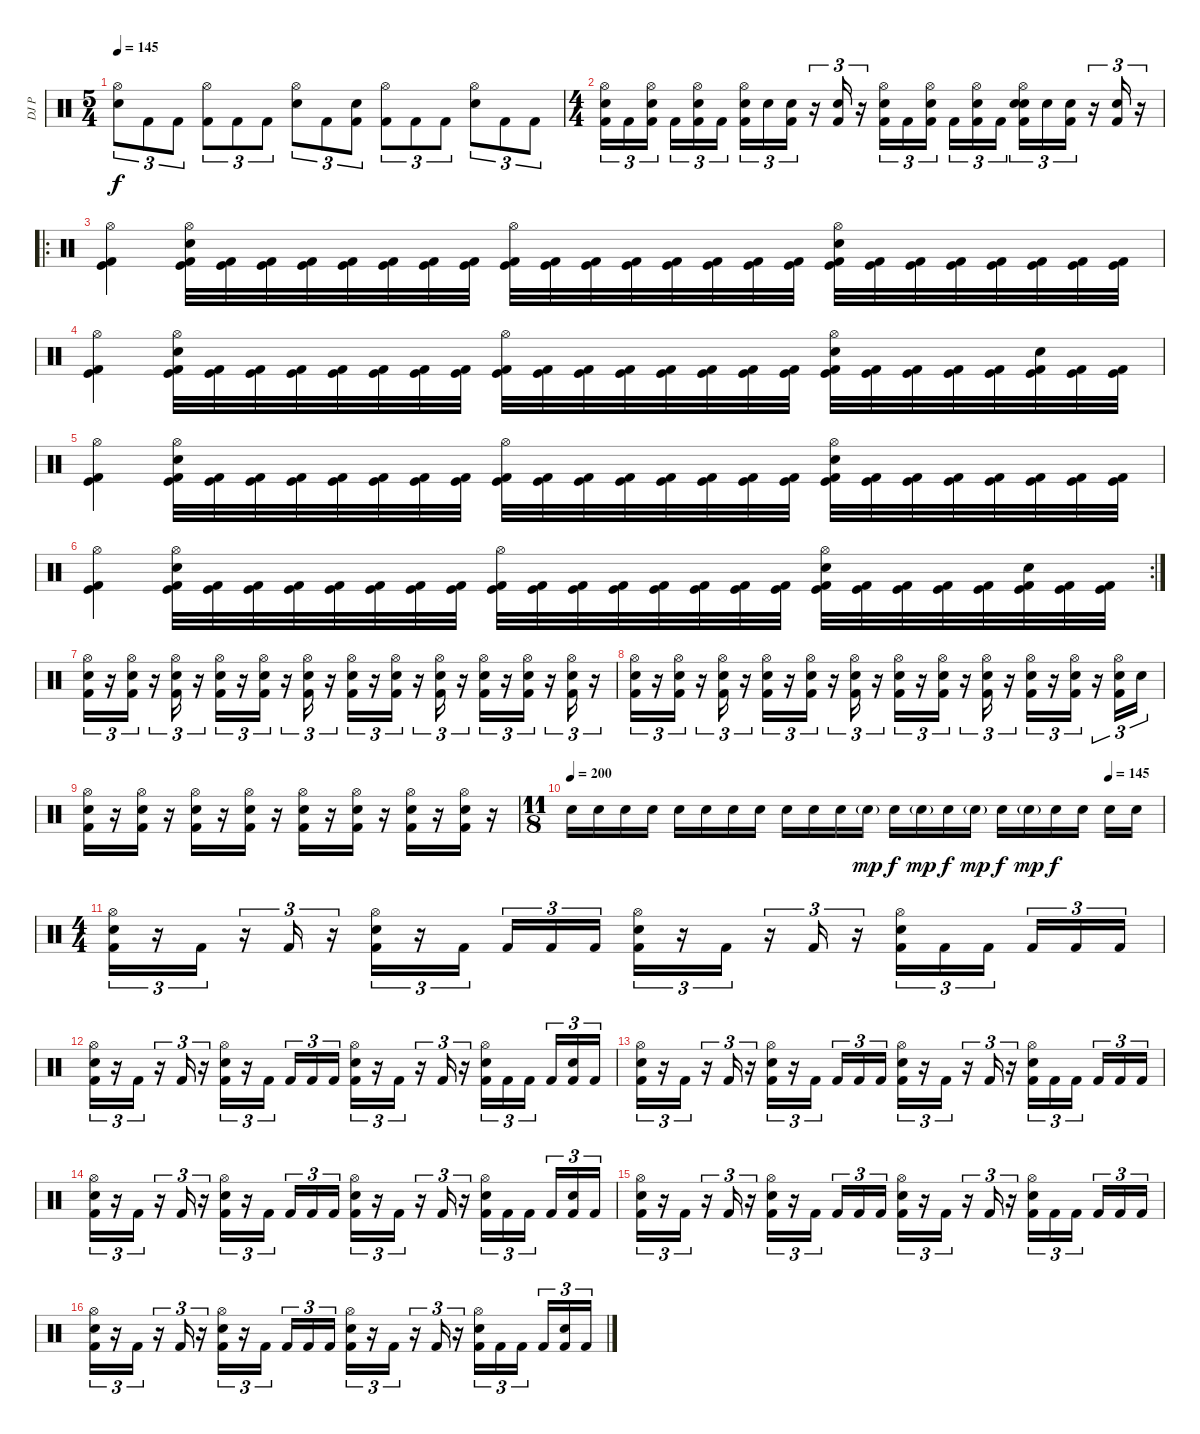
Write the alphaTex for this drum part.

\track ("DJ P" "DJ P") {instrument percussion}
\staff {score}
\articulation defaults
\ts (5 4)
\tempo 145
\clef neutral
\ks c
("Hi-Hat (open)" "Electric Snare (hit)").8{tu (3 2) dy f} "Kick (hit) 2".8{tu (3 2)} "Kick (hit) 2".8{tu (3 2)} ("Hi-Hat (open)" "Kick (hit) 2").8{tu (3 2)} "Kick (hit) 2".8{tu (3 2)} "Kick (hit) 2".8{tu (3 2)} ("Hi-Hat (open)" "Electric Snare (hit)").8{tu (3 2)} "Kick (hit) 2".8{tu (3 2)} ("Electric Snare (hit)" "Kick (hit) 2").8{tu (3 2)} ("Hi-Hat (open)" "Kick (hit) 2").8{tu (3 2)} "Kick (hit) 2".8{tu (3 2)} "Kick (hit) 2".8{tu (3 2)} ("Hi-Hat (open)" "Electric Snare (hit)").8{tu (3 2)} "Kick (hit) 2".8{tu (3 2)} "Kick (hit) 2".8{tu (3 2)} |
\ts (4 4)
("Hi-Hat (open)" "Electric Snare (hit)" "Kick (hit) 2").16{tu (3 2)} "Kick (hit) 2".16{tu (3 2)} ("Hi-Hat (open)" "Electric Snare (hit)" "Kick (hit) 2").16{tu (3 2) beam splitsecondary} "Kick (hit) 2".16{tu (3 2)} ("Hi-Hat (open)" "Electric Snare (hit)" "Kick (hit) 2").16{tu (3 2)} "Kick (hit) 2".16{tu (3 2)} ("Hi-Hat (open)" "Electric Snare (hit)" "Kick (hit) 2").16{tu (3 2)} "Electric Snare (hit)".16{tu (3 2)} ("Electric Snare (hit)" "Kick (hit) 2").16{tu (3 2)} r.16{tu (3 2)} ("Electric Snare (hit)" "Kick (hit) 2").16{tu (3 2)} r.16{tu (3 2)} ("Hi-Hat (open)" "Electric Snare (hit)" "Kick (hit) 2").16{tu (3 2)} "Kick (hit) 2".16{tu (3 2)} ("Hi-Hat (open)" "Electric Snare (hit)" "Kick (hit) 2").16{tu (3 2) beam splitsecondary} "Kick (hit) 2".16{tu (3 2)} ("Hi-Hat (open)" "Electric Snare (hit)" "Kick (hit) 2").16{tu (3 2)} "Kick (hit) 2".16{tu (3 2)} ("Hi-Hat (open)" "Electric Snare (hit)" "Electric Snare (hit)" "Kick (hit) 2").16{tu (3 2)} "Electric Snare (hit)".16{tu (3 2)} ("Electric Snare (hit)" "Kick (hit) 2").16{tu (3 2)} r.16{tu (3 2)} ("Electric Snare (hit)" "Kick (hit) 2").16{tu (3 2)} r.16{tu (3 2)} |
\ro
("Hi-Hat (open)" "Kick (hit)" "Kick (hit) 2").4 ("Hi-Hat (open)" "Electric Snare (hit)" "Kick (hit)" "Kick (hit) 2").32 ("Kick (hit)" "Kick (hit) 2").32 ("Kick (hit)" "Kick (hit) 2").32 ("Kick (hit)" "Kick (hit) 2").32 ("Kick (hit)" "Kick (hit) 2").32 ("Kick (hit)" "Kick (hit) 2").32 ("Kick (hit)" "Kick (hit) 2").32 ("Kick (hit)" "Kick (hit) 2").32 ("Hi-Hat (open)" "Kick (hit)" "Kick (hit) 2").32 ("Kick (hit)" "Kick (hit) 2").32 ("Kick (hit)" "Kick (hit) 2").32 ("Kick (hit)" "Kick (hit) 2").32 ("Kick (hit)" "Kick (hit) 2").32 ("Kick (hit)" "Kick (hit) 2").32 ("Kick (hit)" "Kick (hit) 2").32 ("Kick (hit)" "Kick (hit) 2").32 ("Hi-Hat (open)" "Electric Snare (hit)" "Kick (hit)" "Kick (hit) 2").32 ("Kick (hit)" "Kick (hit) 2").32 ("Kick (hit)" "Kick (hit) 2").32 ("Kick (hit)" "Kick (hit) 2").32 ("Kick (hit)" "Kick (hit) 2").32 ("Kick (hit)" "Kick (hit) 2").32 ("Kick (hit)" "Kick (hit) 2").32 ("Kick (hit)" "Kick (hit) 2").32 |
("Hi-Hat (open)" "Kick (hit)" "Kick (hit) 2").4 ("Hi-Hat (open)" "Electric Snare (hit)" "Kick (hit)" "Kick (hit) 2").32 ("Kick (hit)" "Kick (hit) 2").32 ("Kick (hit)" "Kick (hit) 2").32 ("Kick (hit)" "Kick (hit) 2").32 ("Kick (hit)" "Kick (hit) 2").32 ("Kick (hit)" "Kick (hit) 2").32 ("Kick (hit)" "Kick (hit) 2").32 ("Kick (hit)" "Kick (hit) 2").32 ("Hi-Hat (open)" "Kick (hit)" "Kick (hit) 2").32 ("Kick (hit)" "Kick (hit) 2").32 ("Kick (hit)" "Kick (hit) 2").32 ("Kick (hit)" "Kick (hit) 2").32 ("Kick (hit)" "Kick (hit) 2").32 ("Kick (hit)" "Kick (hit) 2").32 ("Kick (hit)" "Kick (hit) 2").32 ("Kick (hit)" "Kick (hit) 2").32 ("Hi-Hat (open)" "Electric Snare (hit)" "Kick (hit)" "Kick (hit) 2").32 ("Kick (hit)" "Kick (hit) 2").32 ("Kick (hit)" "Kick (hit) 2").32 ("Kick (hit)" "Kick (hit) 2").32 ("Kick (hit)" "Kick (hit) 2").32 ("Electric Snare (hit)" "Kick (hit)" "Kick (hit) 2").32 ("Kick (hit)" "Kick (hit) 2").32 ("Kick (hit)" "Kick (hit) 2").32 |
("Hi-Hat (open)" "Kick (hit)" "Kick (hit) 2").4 ("Hi-Hat (open)" "Electric Snare (hit)" "Kick (hit)" "Kick (hit) 2").32 ("Kick (hit)" "Kick (hit) 2").32 ("Kick (hit)" "Kick (hit) 2").32 ("Kick (hit)" "Kick (hit) 2").32 ("Kick (hit)" "Kick (hit) 2").32 ("Kick (hit)" "Kick (hit) 2").32 ("Kick (hit)" "Kick (hit) 2").32 ("Kick (hit)" "Kick (hit) 2").32 ("Hi-Hat (open)" "Kick (hit)" "Kick (hit) 2").32 ("Kick (hit)" "Kick (hit) 2").32 ("Kick (hit)" "Kick (hit) 2").32 ("Kick (hit)" "Kick (hit) 2").32 ("Kick (hit)" "Kick (hit) 2").32 ("Kick (hit)" "Kick (hit) 2").32 ("Kick (hit)" "Kick (hit) 2").32 ("Kick (hit)" "Kick (hit) 2").32 ("Hi-Hat (open)" "Electric Snare (hit)" "Kick (hit)" "Kick (hit) 2").32 ("Kick (hit)" "Kick (hit) 2").32 ("Kick (hit)" "Kick (hit) 2").32 ("Kick (hit)" "Kick (hit) 2").32 ("Kick (hit)" "Kick (hit) 2").32 ("Kick (hit)" "Kick (hit) 2").32 ("Kick (hit)" "Kick (hit) 2").32 ("Kick (hit)" "Kick (hit) 2").32 |
\rc 2
("Hi-Hat (open)" "Kick (hit)" "Kick (hit) 2").4 ("Hi-Hat (open)" "Electric Snare (hit)" "Kick (hit)" "Kick (hit) 2").32 ("Kick (hit)" "Kick (hit) 2").32 ("Kick (hit)" "Kick (hit) 2").32 ("Kick (hit)" "Kick (hit) 2").32 ("Kick (hit)" "Kick (hit) 2").32 ("Kick (hit)" "Kick (hit) 2").32 ("Kick (hit)" "Kick (hit) 2").32 ("Kick (hit)" "Kick (hit) 2").32 ("Hi-Hat (open)" "Kick (hit)" "Kick (hit) 2").32 ("Kick (hit)" "Kick (hit) 2").32 ("Kick (hit)" "Kick (hit) 2").32 ("Kick (hit)" "Kick (hit) 2").32 ("Kick (hit)" "Kick (hit) 2").32 ("Kick (hit)" "Kick (hit) 2").32 ("Kick (hit)" "Kick (hit) 2").32 ("Kick (hit)" "Kick (hit) 2").32 ("Hi-Hat (open)" "Electric Snare (hit)" "Kick (hit)" "Kick (hit) 2").32 ("Kick (hit)" "Kick (hit) 2").32 ("Kick (hit)" "Kick (hit) 2").32 ("Kick (hit)" "Kick (hit) 2").32 ("Kick (hit)" "Kick (hit) 2").32 ("Electric Snare (hit)" "Kick (hit)" "Kick (hit) 2").32 ("Kick (hit)" "Kick (hit) 2").32 ("Kick (hit)" "Kick (hit) 2").32 |
("Hi-Hat (open)" "Electric Snare (hit)" "Kick (hit) 2").16{tu (3 2)} r.16{tu (3 2)} ("Hi-Hat (open)" "Electric Snare (hit)" "Kick (hit) 2").16{tu (3 2)} r.16{tu (3 2)} ("Hi-Hat (open)" "Electric Snare (hit)" "Kick (hit) 2").16{tu (3 2)} r.16{tu (3 2)} ("Hi-Hat (open)" "Electric Snare (hit)" "Kick (hit) 2").16{tu (3 2)} r.16{tu (3 2)} ("Hi-Hat (open)" "Electric Snare (hit)" "Kick (hit) 2").16{tu (3 2)} r.16{tu (3 2)} ("Hi-Hat (open)" "Electric Snare (hit)" "Kick (hit) 2").16{tu (3 2)} r.16{tu (3 2)} ("Hi-Hat (open)" "Electric Snare (hit)" "Kick (hit) 2").16{tu (3 2)} r.16{tu (3 2)} ("Hi-Hat (open)" "Electric Snare (hit)" "Kick (hit) 2").16{tu (3 2)} r.16{tu (3 2)} ("Hi-Hat (open)" "Electric Snare (hit)" "Kick (hit) 2").16{tu (3 2)} r.16{tu (3 2)} ("Hi-Hat (open)" "Electric Snare (hit)" "Kick (hit) 2").16{tu (3 2)} r.16{tu (3 2)} ("Hi-Hat (open)" "Electric Snare (hit)" "Kick (hit) 2").16{tu (3 2)} r.16{tu (3 2)} ("Hi-Hat (open)" "Electric Snare (hit)" "Kick (hit) 2").16{tu (3 2)} r.16{tu (3 2)} |
("Hi-Hat (open)" "Electric Snare (hit)" "Kick (hit) 2").16{tu (3 2)} r.16{tu (3 2)} ("Hi-Hat (open)" "Electric Snare (hit)" "Kick (hit) 2").16{tu (3 2)} r.16{tu (3 2)} ("Hi-Hat (open)" "Electric Snare (hit)" "Kick (hit) 2").16{tu (3 2)} r.16{tu (3 2)} ("Hi-Hat (open)" "Electric Snare (hit)" "Kick (hit) 2").16{tu (3 2)} r.16{tu (3 2)} ("Hi-Hat (open)" "Electric Snare (hit)" "Kick (hit) 2").16{tu (3 2)} r.16{tu (3 2)} ("Hi-Hat (open)" "Electric Snare (hit)" "Kick (hit) 2").16{tu (3 2)} r.16{tu (3 2)} ("Hi-Hat (open)" "Electric Snare (hit)" "Kick (hit) 2").16{tu (3 2)} r.16{tu (3 2)} ("Hi-Hat (open)" "Electric Snare (hit)" "Kick (hit) 2").16{tu (3 2)} r.16{tu (3 2)} ("Hi-Hat (open)" "Electric Snare (hit)" "Kick (hit) 2").16{tu (3 2)} r.16{tu (3 2)} ("Hi-Hat (open)" "Electric Snare (hit)" "Kick (hit) 2").16{tu (3 2)} r.16{tu (3 2)} ("Hi-Hat (open)" "Electric Snare (hit)" "Kick (hit) 2").16{tu (3 2)} r.16{tu (3 2)} ("Hi-Hat (open)" "Electric Snare (hit)" "Kick (hit) 2").16{tu (3 2)} "Electric Snare (hit)".16{tu (3 2)} |
("Hi-Hat (open)" "Electric Snare (hit)" "Kick (hit) 2").16 r.16 ("Hi-Hat (open)" "Electric Snare (hit)" "Kick (hit) 2").16 r.16 ("Hi-Hat (open)" "Electric Snare (hit)" "Kick (hit) 2").16 r.16 ("Hi-Hat (open)" "Electric Snare (hit)" "Kick (hit) 2").16 r.16 ("Hi-Hat (open)" "Electric Snare (hit)" "Kick (hit) 2").16 r.16 ("Hi-Hat (open)" "Electric Snare (hit)" "Kick (hit) 2").16 r.16 ("Hi-Hat (open)" "Electric Snare (hit)" "Kick (hit) 2").16 r.16 ("Hi-Hat (open)" "Electric Snare (hit)" "Kick (hit) 2").16 r.16 |
\ts (11 8)
\tempo 200
\tempo (145 0.9090909090909091)
"Electric Snare (hit)".16{volume 4} "Electric Snare (hit)".16 "Electric Snare (hit)".16 "Electric Snare (hit)".16{volume 16} "Electric Snare (hit)".16 "Electric Snare (hit)".16 "Electric Snare (hit)".16 "Electric Snare (hit)".16 "Electric Snare (hit)".16 "Electric Snare (hit)".16 "Electric Snare (hit)".16 "Electric Snare (hit)"{g}.16{dy mp} "Electric Snare (hit)".16{dy f} "Electric Snare (hit)"{g}.16{dy mp} "Electric Snare (hit)".16{dy f} "Electric Snare (hit)"{g}.16{dy mp} "Electric Snare (hit)".16{dy f} "Electric Snare (hit)"{g}.16{dy mp} "Electric Snare (hit)".16{dy f} "Electric Snare (hit)".16 "Electric Snare (hit)".16 "Electric Snare (hit)".16 |
\ts (4 4)
("Hi-Hat (open)" "Electric Snare (hit)" "Kick (hit) 2").16{tu (3 2)} r.16{tu (3 2)} "Kick (hit) 2".16{tu (3 2)} r.16{tu (3 2)} "Kick (hit) 2".16{tu (3 2)} r.16{tu (3 2)} ("Hi-Hat (open)" "Electric Snare (hit)" "Kick (hit) 2").16{tu (3 2)} r.16{tu (3 2)} "Kick (hit) 2".16{tu (3 2) beam splitsecondary} "Kick (hit) 2".16{tu (3 2)} "Kick (hit) 2".16{tu (3 2)} "Kick (hit) 2".16{tu (3 2)} ("Hi-Hat (open)" "Electric Snare (hit)" "Kick (hit) 2").16{tu (3 2)} r.16{tu (3 2)} "Kick (hit) 2".16{tu (3 2)} r.16{tu (3 2)} "Kick (hit) 2".16{tu (3 2)} r.16{tu (3 2)} ("Hi-Hat (open)" "Electric Snare (hit)" "Kick (hit) 2").16{tu (3 2)} "Kick (hit) 2".16{tu (3 2)} "Kick (hit) 2".16{tu (3 2) beam splitsecondary} "Kick (hit) 2".16{tu (3 2)} "Kick (hit) 2".16{tu (3 2)} "Kick (hit) 2".16{tu (3 2)} |
("Hi-Hat (open)" "Electric Snare (hit)" "Kick (hit) 2").16{tu (3 2)} r.16{tu (3 2)} "Kick (hit) 2".16{tu (3 2)} r.16{tu (3 2)} "Kick (hit) 2".16{tu (3 2)} r.16{tu (3 2)} ("Hi-Hat (open)" "Electric Snare (hit)" "Kick (hit) 2").16{tu (3 2)} r.16{tu (3 2)} "Kick (hit) 2".16{tu (3 2) beam splitsecondary} "Kick (hit) 2".16{tu (3 2)} "Kick (hit) 2".16{tu (3 2)} "Kick (hit) 2".16{tu (3 2)} ("Hi-Hat (open)" "Electric Snare (hit)" "Kick (hit) 2").16{tu (3 2)} r.16{tu (3 2)} "Kick (hit) 2".16{tu (3 2)} r.16{tu (3 2)} "Kick (hit) 2".16{tu (3 2)} r.16{tu (3 2)} ("Hi-Hat (open)" "Electric Snare (hit)" "Kick (hit) 2").16{tu (3 2)} "Kick (hit) 2".16{tu (3 2)} "Kick (hit) 2".16{tu (3 2) beam splitsecondary} "Kick (hit) 2".16{tu (3 2)} ("Electric Snare (hit)" "Kick (hit) 2").16{tu (3 2)} "Kick (hit) 2".16{tu (3 2)} |
("Hi-Hat (open)" "Electric Snare (hit)" "Kick (hit) 2").16{tu (3 2)} r.16{tu (3 2)} "Kick (hit) 2".16{tu (3 2)} r.16{tu (3 2)} "Kick (hit) 2".16{tu (3 2)} r.16{tu (3 2)} ("Hi-Hat (open)" "Electric Snare (hit)" "Kick (hit) 2").16{tu (3 2)} r.16{tu (3 2)} "Kick (hit) 2".16{tu (3 2) beam splitsecondary} "Kick (hit) 2".16{tu (3 2)} "Kick (hit) 2".16{tu (3 2)} "Kick (hit) 2".16{tu (3 2)} ("Hi-Hat (open)" "Electric Snare (hit)" "Kick (hit) 2").16{tu (3 2)} r.16{tu (3 2)} "Kick (hit) 2".16{tu (3 2)} r.16{tu (3 2)} "Kick (hit) 2".16{tu (3 2)} r.16{tu (3 2)} ("Hi-Hat (open)" "Electric Snare (hit)" "Kick (hit) 2").16{tu (3 2)} "Kick (hit) 2".16{tu (3 2)} "Kick (hit) 2".16{tu (3 2) beam splitsecondary} "Kick (hit) 2".16{tu (3 2)} "Kick (hit) 2".16{tu (3 2)} "Kick (hit) 2".16{tu (3 2)} |
("Hi-Hat (open)" "Electric Snare (hit)" "Kick (hit) 2").16{tu (3 2)} r.16{tu (3 2)} "Kick (hit) 2".16{tu (3 2)} r.16{tu (3 2)} "Kick (hit) 2".16{tu (3 2)} r.16{tu (3 2)} ("Hi-Hat (open)" "Electric Snare (hit)" "Kick (hit) 2").16{tu (3 2)} r.16{tu (3 2)} "Kick (hit) 2".16{tu (3 2) beam splitsecondary} "Kick (hit) 2".16{tu (3 2)} "Kick (hit) 2".16{tu (3 2)} "Kick (hit) 2".16{tu (3 2)} ("Hi-Hat (open)" "Electric Snare (hit)" "Kick (hit) 2").16{tu (3 2)} r.16{tu (3 2)} "Kick (hit) 2".16{tu (3 2)} r.16{tu (3 2)} "Kick (hit) 2".16{tu (3 2)} r.16{tu (3 2)} ("Hi-Hat (open)" "Electric Snare (hit)" "Kick (hit) 2").16{tu (3 2)} "Kick (hit) 2".16{tu (3 2)} "Kick (hit) 2".16{tu (3 2) beam splitsecondary} "Kick (hit) 2".16{tu (3 2)} ("Electric Snare (hit)" "Kick (hit) 2").16{tu (3 2)} "Kick (hit) 2".16{tu (3 2)} |
("Hi-Hat (open)" "Electric Snare (hit)" "Kick (hit) 2").16{tu (3 2)} r.16{tu (3 2)} "Kick (hit) 2".16{tu (3 2)} r.16{tu (3 2)} "Kick (hit) 2".16{tu (3 2)} r.16{tu (3 2)} ("Hi-Hat (open)" "Electric Snare (hit)" "Kick (hit) 2").16{tu (3 2)} r.16{tu (3 2)} "Kick (hit) 2".16{tu (3 2) beam splitsecondary} "Kick (hit) 2".16{tu (3 2)} "Kick (hit) 2".16{tu (3 2)} "Kick (hit) 2".16{tu (3 2)} ("Hi-Hat (open)" "Electric Snare (hit)" "Kick (hit) 2").16{tu (3 2)} r.16{tu (3 2)} "Kick (hit) 2".16{tu (3 2)} r.16{tu (3 2)} "Kick (hit) 2".16{tu (3 2)} r.16{tu (3 2)} ("Hi-Hat (open)" "Electric Snare (hit)" "Kick (hit) 2").16{tu (3 2)} "Kick (hit) 2".16{tu (3 2)} "Kick (hit) 2".16{tu (3 2) beam splitsecondary} "Kick (hit) 2".16{tu (3 2)} "Kick (hit) 2".16{tu (3 2)} "Kick (hit) 2".16{tu (3 2)} |
("Hi-Hat (open)" "Electric Snare (hit)" "Kick (hit) 2").16{tu (3 2)} r.16{tu (3 2)} "Kick (hit) 2".16{tu (3 2)} r.16{tu (3 2)} "Kick (hit) 2".16{tu (3 2)} r.16{tu (3 2)} ("Hi-Hat (open)" "Electric Snare (hit)" "Kick (hit) 2").16{tu (3 2)} r.16{tu (3 2)} "Kick (hit) 2".16{tu (3 2) beam splitsecondary} "Kick (hit) 2".16{tu (3 2)} "Kick (hit) 2".16{tu (3 2)} "Kick (hit) 2".16{tu (3 2)} ("Hi-Hat (open)" "Electric Snare (hit)" "Kick (hit) 2").16{tu (3 2)} r.16{tu (3 2)} "Kick (hit) 2".16{tu (3 2)} r.16{tu (3 2)} "Kick (hit) 2".16{tu (3 2)} r.16{tu (3 2)} ("Hi-Hat (open)" "Electric Snare (hit)" "Kick (hit) 2").16{tu (3 2)} "Kick (hit) 2".16{tu (3 2)} "Kick (hit) 2".16{tu (3 2) beam splitsecondary} "Kick (hit) 2".16{tu (3 2)} ("Electric Snare (hit)" "Kick (hit) 2").16{tu (3 2)} "Kick (hit) 2".16{tu (3 2)}
